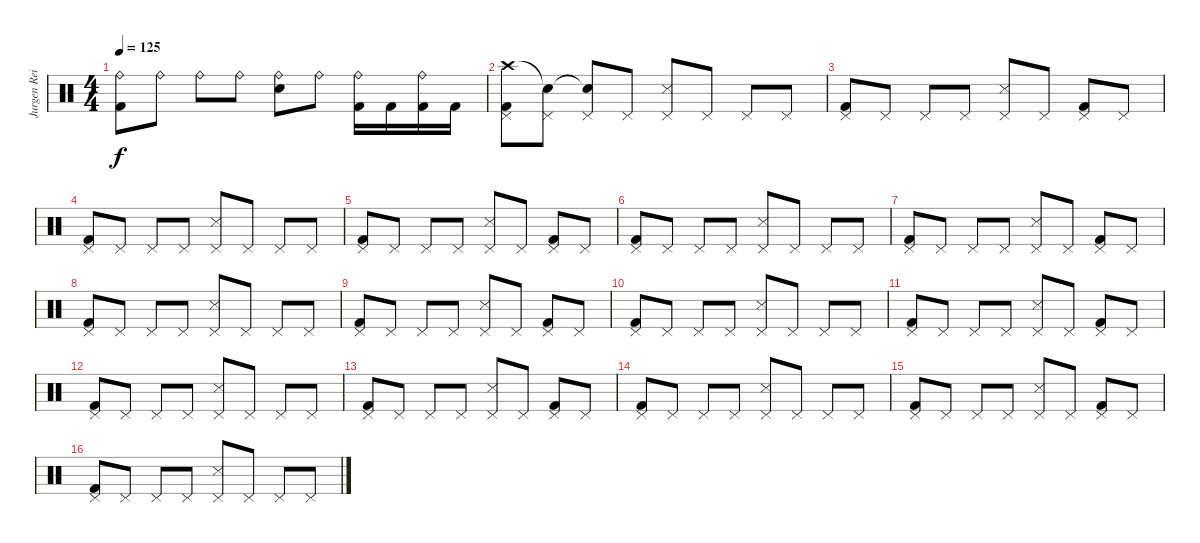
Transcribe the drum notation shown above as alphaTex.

\track ("Jurgen Reil" "Jurgen Rei") {instrument percussion}
\staff {score}
\articulation defaults
\ts (4 4)
\tempo 125
\clef neutral
\ks c
("Ride (bell)" "Kick (hit) 2").8{dy f} "Ride (bell)".8 "Ride (bell)".8 "Ride (bell)".8 ("Ride (bell)" "Snare (hit) 2").8 "Ride (bell)".8 ("Ride (bell)" "Kick (hit) 2").16 "Kick (hit) 2".16 ("Ride (bell)" "Kick (hit) 2").16 "Kick (hit) 2".16 |
("Pedal Hi-Hat (hit)" "Crash high (hit)" "Kick (hit) 2").8{volume 13} ("Pedal Hi-Hat (hit)" "Snare (hit)"{t}).8 ("Pedal Hi-Hat (hit)" "Snare (hit)"{t}).8 "Pedal Hi-Hat (hit)".8 ("Pedal Hi-Hat (hit)" "Snare (side stick) 3").8 "Pedal Hi-Hat (hit)".8 "Pedal Hi-Hat (hit)".8 "Pedal Hi-Hat (hit)".8 |
("Pedal Hi-Hat (hit)" "Kick (hit) 2").8 "Pedal Hi-Hat (hit)".8 "Pedal Hi-Hat (hit)".8 "Pedal Hi-Hat (hit)".8 ("Pedal Hi-Hat (hit)" "Snare (side stick) 3").8 "Pedal Hi-Hat (hit)".8 ("Pedal Hi-Hat (hit)" "Kick (hit) 2").8 "Pedal Hi-Hat (hit)".8 |
("Pedal Hi-Hat (hit)" "Kick (hit) 2").8 "Pedal Hi-Hat (hit)".8 "Pedal Hi-Hat (hit)".8 "Pedal Hi-Hat (hit)".8 ("Pedal Hi-Hat (hit)" "Snare (side stick) 3").8 "Pedal Hi-Hat (hit)".8 "Pedal Hi-Hat (hit)".8 "Pedal Hi-Hat (hit)".8 |
("Pedal Hi-Hat (hit)" "Kick (hit) 2").8 "Pedal Hi-Hat (hit)".8 "Pedal Hi-Hat (hit)".8 "Pedal Hi-Hat (hit)".8 ("Pedal Hi-Hat (hit)" "Snare (side stick) 3").8 "Pedal Hi-Hat (hit)".8 ("Pedal Hi-Hat (hit)" "Kick (hit) 2").8 "Pedal Hi-Hat (hit)".8 |
("Pedal Hi-Hat (hit)" "Kick (hit) 2").8 "Pedal Hi-Hat (hit)".8 "Pedal Hi-Hat (hit)".8 "Pedal Hi-Hat (hit)".8 ("Pedal Hi-Hat (hit)" "Snare (side stick) 3").8 "Pedal Hi-Hat (hit)".8 "Pedal Hi-Hat (hit)".8 "Pedal Hi-Hat (hit)".8 |
("Pedal Hi-Hat (hit)" "Kick (hit) 2").8 "Pedal Hi-Hat (hit)".8 "Pedal Hi-Hat (hit)".8 "Pedal Hi-Hat (hit)".8 ("Pedal Hi-Hat (hit)" "Snare (side stick) 3").8 "Pedal Hi-Hat (hit)".8 ("Pedal Hi-Hat (hit)" "Kick (hit) 2").8 "Pedal Hi-Hat (hit)".8 |
("Pedal Hi-Hat (hit)" "Kick (hit) 2").8 "Pedal Hi-Hat (hit)".8 "Pedal Hi-Hat (hit)".8 "Pedal Hi-Hat (hit)".8 ("Pedal Hi-Hat (hit)" "Snare (side stick) 3").8 "Pedal Hi-Hat (hit)".8 "Pedal Hi-Hat (hit)".8 "Pedal Hi-Hat (hit)".8 |
("Pedal Hi-Hat (hit)" "Kick (hit) 2").8 "Pedal Hi-Hat (hit)".8 "Pedal Hi-Hat (hit)".8 "Pedal Hi-Hat (hit)".8 ("Pedal Hi-Hat (hit)" "Snare (side stick) 3").8 "Pedal Hi-Hat (hit)".8 ("Pedal Hi-Hat (hit)" "Kick (hit) 2").8 "Pedal Hi-Hat (hit)".8 |
("Pedal Hi-Hat (hit)" "Kick (hit) 2").8 "Pedal Hi-Hat (hit)".8 "Pedal Hi-Hat (hit)".8 "Pedal Hi-Hat (hit)".8 ("Pedal Hi-Hat (hit)" "Snare (side stick) 3").8 "Pedal Hi-Hat (hit)".8 "Pedal Hi-Hat (hit)".8 "Pedal Hi-Hat (hit)".8 |
("Pedal Hi-Hat (hit)" "Kick (hit) 2").8 "Pedal Hi-Hat (hit)".8 "Pedal Hi-Hat (hit)".8 "Pedal Hi-Hat (hit)".8 ("Pedal Hi-Hat (hit)" "Snare (side stick) 3").8 "Pedal Hi-Hat (hit)".8 ("Pedal Hi-Hat (hit)" "Kick (hit) 2").8 "Pedal Hi-Hat (hit)".8 |
("Pedal Hi-Hat (hit)" "Kick (hit) 2").8 "Pedal Hi-Hat (hit)".8 "Pedal Hi-Hat (hit)".8 "Pedal Hi-Hat (hit)".8 ("Pedal Hi-Hat (hit)" "Snare (side stick) 3").8 "Pedal Hi-Hat (hit)".8 "Pedal Hi-Hat (hit)".8 "Pedal Hi-Hat (hit)".8 |
("Pedal Hi-Hat (hit)" "Kick (hit) 2").8 "Pedal Hi-Hat (hit)".8 "Pedal Hi-Hat (hit)".8 "Pedal Hi-Hat (hit)".8 ("Pedal Hi-Hat (hit)" "Snare (side stick) 3").8 "Pedal Hi-Hat (hit)".8 ("Pedal Hi-Hat (hit)" "Kick (hit) 2").8 "Pedal Hi-Hat (hit)".8 |
("Pedal Hi-Hat (hit)" "Kick (hit) 2").8 "Pedal Hi-Hat (hit)".8 "Pedal Hi-Hat (hit)".8 "Pedal Hi-Hat (hit)".8 ("Pedal Hi-Hat (hit)" "Snare (side stick) 3").8 "Pedal Hi-Hat (hit)".8 "Pedal Hi-Hat (hit)".8 "Pedal Hi-Hat (hit)".8 |
("Pedal Hi-Hat (hit)" "Kick (hit) 2").8 "Pedal Hi-Hat (hit)".8 "Pedal Hi-Hat (hit)".8 "Pedal Hi-Hat (hit)".8 ("Pedal Hi-Hat (hit)" "Snare (side stick) 3").8 "Pedal Hi-Hat (hit)".8 ("Pedal Hi-Hat (hit)" "Kick (hit) 2").8 "Pedal Hi-Hat (hit)".8 |
("Pedal Hi-Hat (hit)" "Kick (hit) 2").8 "Pedal Hi-Hat (hit)".8 "Pedal Hi-Hat (hit)".8 "Pedal Hi-Hat (hit)".8 ("Pedal Hi-Hat (hit)" "Snare (side stick) 3").8 "Pedal Hi-Hat (hit)".8 "Pedal Hi-Hat (hit)".8 "Pedal Hi-Hat (hit)".8
